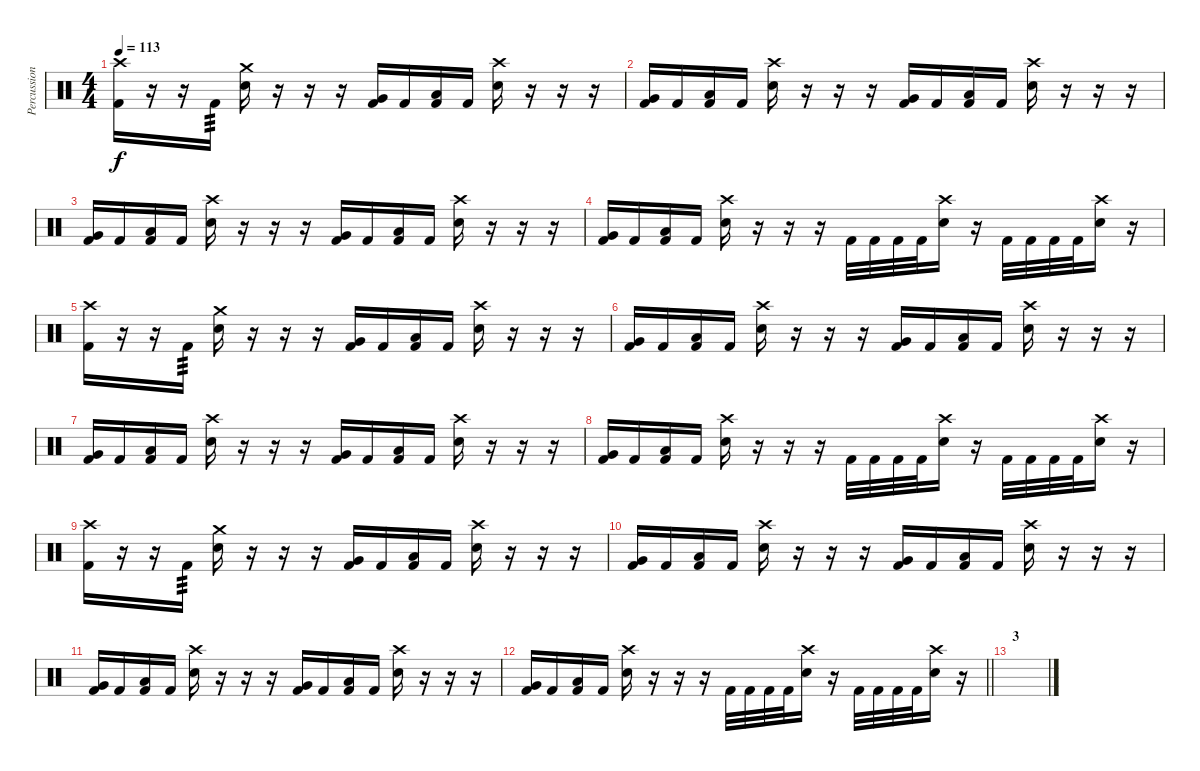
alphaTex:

\track ("Percussion" "Percussion") {instrument percussion}
\staff {score}
\articulation defaults
\ts (4 4)
\tempo 113
\clef neutral
\ks c
("Crash high (hit)" "Kick (hit) 2").16{dy f} r.16 r.16 "Kick (hit) 2".16{tp 3} ("Crash medium (hit)" "Electric Snare (hit)").16 r.16 r.16 r.16 ("Very Low Tom (hit)" "Kick (hit) 2").16 "Kick (hit) 2".16 ("Low Floor Tom (hit)" "Kick (hit) 2").16 "Kick (hit) 2".16 ("Crash high (hit)" "Electric Snare (hit)").16 r.16 r.16 r.16 |
("Very Low Tom (hit)" "Kick (hit) 2").16 "Kick (hit) 2".16 ("Low Floor Tom (hit)" "Kick (hit) 2").16 "Kick (hit) 2".16 ("Crash high (hit)" "Electric Snare (hit)").16 r.16 r.16 r.16 ("Very Low Tom (hit)" "Kick (hit) 2").16 "Kick (hit) 2".16 ("Low Floor Tom (hit)" "Kick (hit) 2").16 "Kick (hit) 2".16 ("Crash high (hit)" "Electric Snare (hit)").16 r.16 r.16 r.16 |
("Very Low Tom (hit)" "Kick (hit) 2").16 "Kick (hit) 2".16 ("Low Floor Tom (hit)" "Kick (hit) 2").16 "Kick (hit) 2".16 ("Crash high (hit)" "Electric Snare (hit)").16 r.16 r.16 r.16 ("Very Low Tom (hit)" "Kick (hit) 2").16 "Kick (hit) 2".16 ("Low Floor Tom (hit)" "Kick (hit) 2").16 "Kick (hit) 2".16 ("Crash high (hit)" "Electric Snare (hit)").16 r.16 r.16 r.16 |
("Very Low Tom (hit)" "Kick (hit) 2").16 "Kick (hit) 2".16 ("Low Floor Tom (hit)" "Kick (hit) 2").16 "Kick (hit) 2".16 ("Crash high (hit)" "Electric Snare (hit)").16 r.16 r.16 r.16 "Kick (hit) 2".32 "Kick (hit) 2".32 "Kick (hit) 2".32 "Kick (hit) 2".32 ("Crash high (hit)" "Electric Snare (hit)").16 r.16 "Kick (hit) 2".32 "Kick (hit) 2".32 "Kick (hit) 2".32 "Kick (hit) 2".32 ("Crash high (hit)" "Electric Snare (hit)").16 r.16 |
("Crash high (hit)" "Kick (hit) 2").16 r.16 r.16 "Kick (hit) 2".16{tp 3} ("Crash medium (hit)" "Electric Snare (hit)").16 r.16 r.16 r.16 ("Very Low Tom (hit)" "Kick (hit) 2").16 "Kick (hit) 2".16 ("Low Floor Tom (hit)" "Kick (hit) 2").16 "Kick (hit) 2".16 ("Crash high (hit)" "Electric Snare (hit)").16 r.16 r.16 r.16 |
("Very Low Tom (hit)" "Kick (hit) 2").16 "Kick (hit) 2".16 ("Low Floor Tom (hit)" "Kick (hit) 2").16 "Kick (hit) 2".16 ("Crash high (hit)" "Electric Snare (hit)").16 r.16 r.16 r.16 ("Very Low Tom (hit)" "Kick (hit) 2").16 "Kick (hit) 2".16 ("Low Floor Tom (hit)" "Kick (hit) 2").16 "Kick (hit) 2".16 ("Crash high (hit)" "Electric Snare (hit)").16 r.16 r.16 r.16 |
("Very Low Tom (hit)" "Kick (hit) 2").16 "Kick (hit) 2".16 ("Low Floor Tom (hit)" "Kick (hit) 2").16 "Kick (hit) 2".16 ("Crash high (hit)" "Electric Snare (hit)").16 r.16 r.16 r.16 ("Very Low Tom (hit)" "Kick (hit) 2").16 "Kick (hit) 2".16 ("Low Floor Tom (hit)" "Kick (hit) 2").16 "Kick (hit) 2".16 ("Crash high (hit)" "Electric Snare (hit)").16 r.16 r.16 r.16 |
("Very Low Tom (hit)" "Kick (hit) 2").16 "Kick (hit) 2".16 ("Low Floor Tom (hit)" "Kick (hit) 2").16 "Kick (hit) 2".16 ("Crash high (hit)" "Electric Snare (hit)").16 r.16 r.16 r.16 "Kick (hit) 2".32 "Kick (hit) 2".32 "Kick (hit) 2".32 "Kick (hit) 2".32 ("Crash high (hit)" "Electric Snare (hit)").16 r.16 "Kick (hit) 2".32 "Kick (hit) 2".32 "Kick (hit) 2".32 "Kick (hit) 2".32 ("Crash high (hit)" "Electric Snare (hit)").16 r.16 |
("Crash high (hit)" "Kick (hit) 2").16 r.16 r.16 "Kick (hit) 2".16{tp 3} ("Crash medium (hit)" "Electric Snare (hit)").16 r.16 r.16 r.16 ("Very Low Tom (hit)" "Kick (hit) 2").16 "Kick (hit) 2".16 ("Low Floor Tom (hit)" "Kick (hit) 2").16 "Kick (hit) 2".16 ("Crash high (hit)" "Electric Snare (hit)").16 r.16 r.16 r.16 |
("Very Low Tom (hit)" "Kick (hit) 2").16 "Kick (hit) 2".16 ("Low Floor Tom (hit)" "Kick (hit) 2").16 "Kick (hit) 2".16 ("Crash high (hit)" "Electric Snare (hit)").16 r.16 r.16 r.16 ("Very Low Tom (hit)" "Kick (hit) 2").16 "Kick (hit) 2".16 ("Low Floor Tom (hit)" "Kick (hit) 2").16 "Kick (hit) 2".16 ("Crash high (hit)" "Electric Snare (hit)").16 r.16 r.16 r.16 |
("Very Low Tom (hit)" "Kick (hit) 2").16 "Kick (hit) 2".16 ("Low Floor Tom (hit)" "Kick (hit) 2").16 "Kick (hit) 2".16 ("Crash high (hit)" "Electric Snare (hit)").16 r.16 r.16 r.16 ("Very Low Tom (hit)" "Kick (hit) 2").16 "Kick (hit) 2".16 ("Low Floor Tom (hit)" "Kick (hit) 2").16 "Kick (hit) 2".16 ("Crash high (hit)" "Electric Snare (hit)").16 r.16 r.16 r.16 |
\barLineRight lightlight
("Very Low Tom (hit)" "Kick (hit) 2").16 "Kick (hit) 2".16 ("Low Floor Tom (hit)" "Kick (hit) 2").16 "Kick (hit) 2".16 ("Crash high (hit)" "Electric Snare (hit)").16 r.16 r.16 r.16 "Kick (hit) 2".32 "Kick (hit) 2".32 "Kick (hit) 2".32 "Kick (hit) 2".32 ("Crash high (hit)" "Electric Snare (hit)").16 r.16 "Kick (hit) 2".32 "Kick (hit) 2".32 "Kick (hit) 2".32 "Kick (hit) 2".32 ("Crash high (hit)" "Electric Snare (hit)").16 r.16 |
\section ("" "3")
